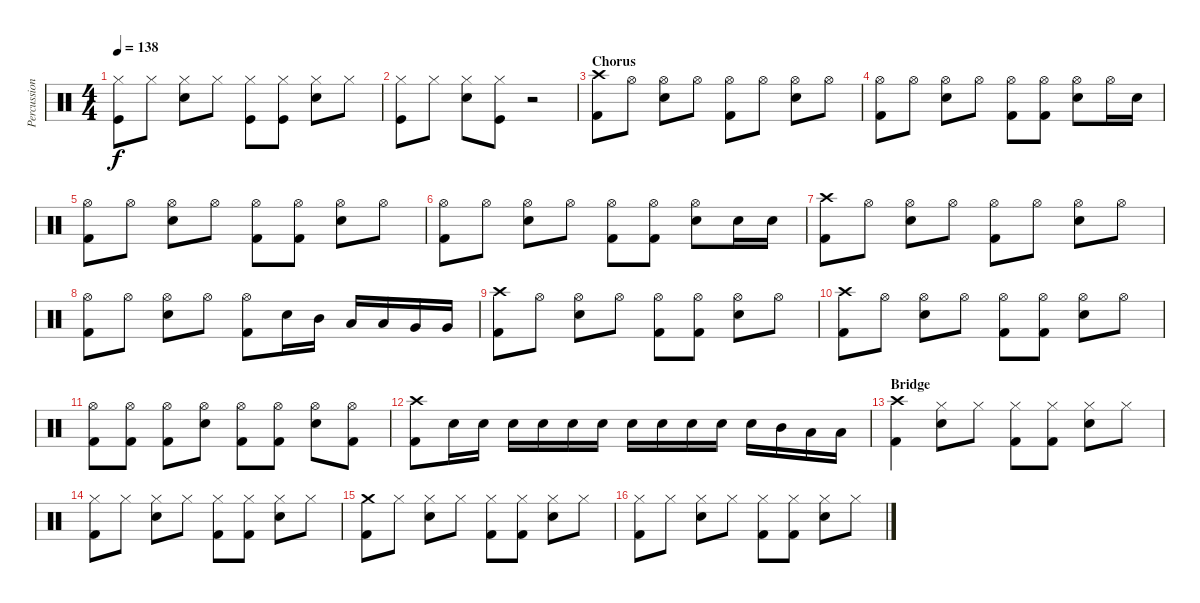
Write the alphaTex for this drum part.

\track ("Percussion" "Percussion") {instrument percussion}
\staff {score}
\articulation defaults
\ts (4 4)
\tempo 138
\clef neutral
\ks c
("Hi-Hat (closed)" "Kick (hit)").8{dy f} "Hi-Hat (closed)".8 ("Hi-Hat (closed)" "Electric Snare (hit)").8 "Hi-Hat (closed)".8 ("Hi-Hat (closed)" "Kick (hit)").8 ("Hi-Hat (closed)" "Kick (hit)").8 ("Hi-Hat (closed)" "Electric Snare (hit)").8 "Hi-Hat (closed)".8 |
("Hi-Hat (closed)" "Kick (hit)").8 "Hi-Hat (closed)".8 ("Hi-Hat (closed)" "Electric Snare (hit)").8 ("Hi-Hat (closed)" "Kick (hit)").8 r.2 |
\section ("" "Chorus")
("Crash high (hit)" "Kick (hit) 2").8 "Hi-Hat (open)".8 ("Hi-Hat (open)" "Electric Snare (hit)").8 "Hi-Hat (open)".8 ("Hi-Hat (open)" "Kick (hit) 2").8 "Hi-Hat (open)".8 ("Hi-Hat (open)" "Electric Snare (hit)").8 "Hi-Hat (open)".8 |
("Hi-Hat (open)" "Kick (hit) 2").8 "Hi-Hat (open)".8 ("Hi-Hat (open)" "Electric Snare (hit)").8 "Hi-Hat (open)".8 ("Hi-Hat (open)" "Kick (hit) 2").8 ("Hi-Hat (open)" "Kick (hit) 2").8 ("Hi-Hat (open)" "Electric Snare (hit)").8 "Hi-Hat (open)".16 "Electric Snare (hit)".16 |
("Hi-Hat (open)" "Kick (hit) 2").8 "Hi-Hat (open)".8 ("Hi-Hat (open)" "Electric Snare (hit)").8 "Hi-Hat (open)".8 ("Hi-Hat (open)" "Kick (hit) 2").8 ("Hi-Hat (open)" "Kick (hit) 2").8 ("Hi-Hat (open)" "Electric Snare (hit)").8 "Hi-Hat (open)".8 |
("Hi-Hat (open)" "Kick (hit) 2").8 "Hi-Hat (open)".8 ("Hi-Hat (open)" "Electric Snare (hit)").8 "Hi-Hat (open)".8 ("Hi-Hat (open)" "Kick (hit) 2").8 ("Hi-Hat (open)" "Kick (hit) 2").8 ("Hi-Hat (open)" "Electric Snare (hit)").8 "Electric Snare (hit)".16 "Electric Snare (hit)".16 |
("Crash high (hit)" "Kick (hit) 2").8 "Hi-Hat (open)".8 ("Hi-Hat (open)" "Electric Snare (hit)").8 "Hi-Hat (open)".8 ("Hi-Hat (open)" "Kick (hit) 2").8 "Hi-Hat (open)".8 ("Hi-Hat (open)" "Electric Snare (hit)").8 "Hi-Hat (open)".8 |
("Hi-Hat (open)" "Kick (hit) 2").8 "Hi-Hat (open)".8 ("Hi-Hat (open)" "Electric Snare (hit)").8 "Hi-Hat (open)".8 ("Hi-Hat (open)" "Kick (hit) 2").8 "Electric Snare (hit)".16 "Mid Tom (hit)".16 "Low Tom (hit)".16 "Low Tom (hit)".16 "Very Low Tom (hit)".16 "Very Low Tom (hit)".16 |
("Crash high (hit)" "Kick (hit) 2").8 "Hi-Hat (open)".8 ("Hi-Hat (open)" "Electric Snare (hit)").8 "Hi-Hat (open)".8 ("Hi-Hat (open)" "Kick (hit) 2").8 ("Hi-Hat (open)" "Kick (hit) 2").8 ("Hi-Hat (open)" "Electric Snare (hit)").8 "Hi-Hat (open)".8 |
("Crash high (hit)" "Kick (hit) 2").8 "Hi-Hat (open)".8 ("Hi-Hat (open)" "Electric Snare (hit)").8 "Hi-Hat (open)".8 ("Hi-Hat (open)" "Kick (hit) 2").8 ("Hi-Hat (open)" "Kick (hit) 2").8 ("Hi-Hat (open)" "Electric Snare (hit)").8 "Hi-Hat (open)".8 |
("Hi-Hat (open)" "Kick (hit) 2").8 ("Hi-Hat (open)" "Kick (hit) 2").8 ("Hi-Hat (open)" "Kick (hit) 2").8 ("Hi-Hat (open)" "Electric Snare (hit)").8 ("Hi-Hat (open)" "Kick (hit) 2").8 ("Hi-Hat (open)" "Kick (hit) 2").8 ("Hi-Hat (open)" "Electric Snare (hit)").8 ("Hi-Hat (open)" "Kick (hit) 2").8 |
("Crash high (hit)" "Kick (hit) 2").8 "Electric Snare (hit)".16 "Electric Snare (hit)".16 "Electric Snare (hit)".16 "Electric Snare (hit)".16 "Electric Snare (hit)".16 "Electric Snare (hit)".16 "Electric Snare (hit)".16 "Electric Snare (hit)".16 "Electric Snare (hit)".16 "Electric Snare (hit)".16 "Electric Snare (hit)".16 "Mid Tom (hit)".16 "Low Tom (hit)".16 "Low Tom (hit)".16 |
\section ("" "Bridge")
("Crash high (hit)" "Kick (hit) 2").4 ("Hi-Hat (closed)" "Electric Snare (hit)").8 "Hi-Hat (closed)".8 ("Hi-Hat (closed)" "Kick (hit) 2").8 ("Hi-Hat (closed)" "Kick (hit) 2").8 ("Hi-Hat (closed)" "Electric Snare (hit)").8 "Hi-Hat (closed)".8 |
("Hi-Hat (closed)" "Kick (hit) 2").8 "Hi-Hat (closed)".8 ("Hi-Hat (closed)" "Electric Snare (hit)").8 "Hi-Hat (closed)".8 ("Hi-Hat (closed)" "Kick (hit) 2").8 ("Hi-Hat (closed)" "Kick (hit) 2").8 ("Hi-Hat (closed)" "Electric Snare (hit)").8 "Hi-Hat (closed)".8 |
("Crash medium (hit)" "Kick (hit) 2").8 "Hi-Hat (closed)".8 ("Hi-Hat (closed)" "Electric Snare (hit)").8 "Hi-Hat (closed)".8 ("Hi-Hat (closed)" "Kick (hit) 2").8 ("Hi-Hat (closed)" "Kick (hit) 2").8 ("Hi-Hat (closed)" "Electric Snare (hit)").8 "Hi-Hat (closed)".8 |
("Hi-Hat (closed)" "Kick (hit) 2").8 "Hi-Hat (closed)".8 ("Hi-Hat (closed)" "Electric Snare (hit)").8 "Hi-Hat (closed)".8 ("Hi-Hat (closed)" "Kick (hit) 2").8 ("Hi-Hat (closed)" "Kick (hit) 2").8 ("Hi-Hat (closed)" "Electric Snare (hit)").8 "Hi-Hat (closed)".8
